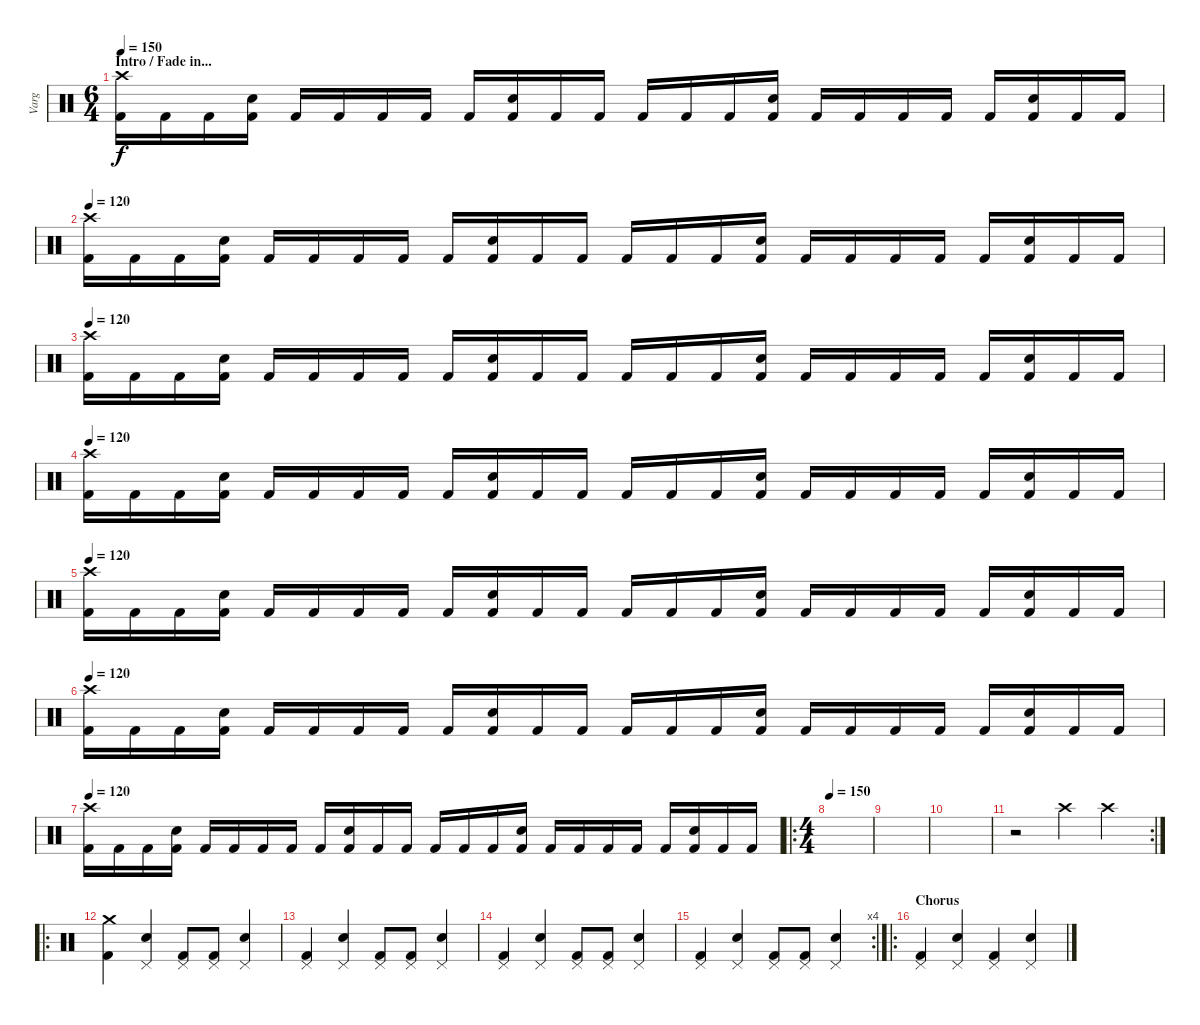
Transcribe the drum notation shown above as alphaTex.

\track ("Varg" "Varg") {instrument percussion}
\staff {score}
\articulation defaults
\ts (6 4)
\section ("" "Intro / Fade in...")
\tempo 150
\tempo 120
\tempo 150
\clef neutral
\ks c
("Crash high (hit)" "Kick (hit) 2").16{dy f} "Kick (hit) 2".16 "Kick (hit) 2".16 ("Snare (hit) 2" "Kick (hit) 2").16 "Kick (hit) 2".16 "Kick (hit) 2".16 "Kick (hit) 2".16 "Kick (hit) 2".16 "Kick (hit) 2".16 ("Snare (hit) 2" "Kick (hit) 2").16 "Kick (hit) 2".16 "Kick (hit) 2".16 "Kick (hit) 2".16 "Kick (hit) 2".16 "Kick (hit) 2".16 ("Snare (hit) 2" "Kick (hit) 2").16 "Kick (hit) 2".16 "Kick (hit) 2".16 "Kick (hit) 2".16 "Kick (hit) 2".16 "Kick (hit) 2".16 ("Snare (hit) 2" "Kick (hit) 2").16 "Kick (hit) 2".16 "Kick (hit) 2".16 |
\tempo 120
("Crash high (hit)" "Kick (hit) 2").16 "Kick (hit) 2".16 "Kick (hit) 2".16 ("Snare (hit) 2" "Kick (hit) 2").16 "Kick (hit) 2".16 "Kick (hit) 2".16 "Kick (hit) 2".16 "Kick (hit) 2".16 "Kick (hit) 2".16 ("Snare (hit) 2" "Kick (hit) 2").16 "Kick (hit) 2".16 "Kick (hit) 2".16 "Kick (hit) 2".16 "Kick (hit) 2".16 "Kick (hit) 2".16 ("Snare (hit) 2" "Kick (hit) 2").16 "Kick (hit) 2".16 "Kick (hit) 2".16 "Kick (hit) 2".16 "Kick (hit) 2".16 "Kick (hit) 2".16 ("Snare (hit) 2" "Kick (hit) 2").16 "Kick (hit) 2".16 "Kick (hit) 2".16 |
\tempo 120
("Crash high (hit)" "Kick (hit) 2").16 "Kick (hit) 2".16 "Kick (hit) 2".16 ("Snare (hit) 2" "Kick (hit) 2").16 "Kick (hit) 2".16 "Kick (hit) 2".16 "Kick (hit) 2".16 "Kick (hit) 2".16 "Kick (hit) 2".16 ("Snare (hit) 2" "Kick (hit) 2").16 "Kick (hit) 2".16 "Kick (hit) 2".16 "Kick (hit) 2".16 "Kick (hit) 2".16 "Kick (hit) 2".16 ("Snare (hit) 2" "Kick (hit) 2").16 "Kick (hit) 2".16 "Kick (hit) 2".16 "Kick (hit) 2".16 "Kick (hit) 2".16 "Kick (hit) 2".16 ("Snare (hit) 2" "Kick (hit) 2").16 "Kick (hit) 2".16 "Kick (hit) 2".16 |
\tempo 120
("Crash high (hit)" "Kick (hit) 2").16 "Kick (hit) 2".16 "Kick (hit) 2".16 ("Snare (hit) 2" "Kick (hit) 2").16 "Kick (hit) 2".16 "Kick (hit) 2".16 "Kick (hit) 2".16 "Kick (hit) 2".16 "Kick (hit) 2".16 ("Snare (hit) 2" "Kick (hit) 2").16 "Kick (hit) 2".16 "Kick (hit) 2".16 "Kick (hit) 2".16 "Kick (hit) 2".16 "Kick (hit) 2".16 ("Snare (hit) 2" "Kick (hit) 2").16 "Kick (hit) 2".16 "Kick (hit) 2".16 "Kick (hit) 2".16 "Kick (hit) 2".16 "Kick (hit) 2".16 ("Snare (hit) 2" "Kick (hit) 2").16 "Kick (hit) 2".16 "Kick (hit) 2".16 |
\tempo 120
("Crash high (hit)" "Kick (hit) 2").16 "Kick (hit) 2".16 "Kick (hit) 2".16 ("Snare (hit) 2" "Kick (hit) 2").16 "Kick (hit) 2".16 "Kick (hit) 2".16 "Kick (hit) 2".16 "Kick (hit) 2".16 "Kick (hit) 2".16 ("Snare (hit) 2" "Kick (hit) 2").16 "Kick (hit) 2".16 "Kick (hit) 2".16 "Kick (hit) 2".16 "Kick (hit) 2".16 "Kick (hit) 2".16 ("Snare (hit) 2" "Kick (hit) 2").16 "Kick (hit) 2".16 "Kick (hit) 2".16 "Kick (hit) 2".16 "Kick (hit) 2".16 "Kick (hit) 2".16 ("Snare (hit) 2" "Kick (hit) 2").16 "Kick (hit) 2".16 "Kick (hit) 2".16 |
\tempo 120
("Crash high (hit)" "Kick (hit) 2").16 "Kick (hit) 2".16 "Kick (hit) 2".16 ("Snare (hit) 2" "Kick (hit) 2").16 "Kick (hit) 2".16 "Kick (hit) 2".16 "Kick (hit) 2".16 "Kick (hit) 2".16 "Kick (hit) 2".16 ("Snare (hit) 2" "Kick (hit) 2").16 "Kick (hit) 2".16 "Kick (hit) 2".16 "Kick (hit) 2".16 "Kick (hit) 2".16 "Kick (hit) 2".16 ("Snare (hit) 2" "Kick (hit) 2").16 "Kick (hit) 2".16 "Kick (hit) 2".16 "Kick (hit) 2".16 "Kick (hit) 2".16 "Kick (hit) 2".16 ("Snare (hit) 2" "Kick (hit) 2").16 "Kick (hit) 2".16 "Kick (hit) 2".16 |
\tempo 120
("Crash high (hit)" "Kick (hit) 2").16 "Kick (hit) 2".16 "Kick (hit) 2".16 ("Snare (hit) 2" "Kick (hit) 2").16 "Kick (hit) 2".16 "Kick (hit) 2".16 "Kick (hit) 2".16 "Kick (hit) 2".16 "Kick (hit) 2".16 ("Snare (hit) 2" "Kick (hit) 2").16 "Kick (hit) 2".16 "Kick (hit) 2".16 "Kick (hit) 2".16 "Kick (hit) 2".16 "Kick (hit) 2".16 ("Snare (hit) 2" "Kick (hit) 2").16 "Kick (hit) 2".16 "Kick (hit) 2".16 "Kick (hit) 2".16 "Kick (hit) 2".16 "Kick (hit) 2".16 ("Snare (hit) 2" "Kick (hit) 2").16 "Kick (hit) 2".16 "Kick (hit) 2".16 |
\ro
\ts (4 4)
\tempo 150
|
|
|
\rc 2
r.2 "Crash high (hit)".4 "Crash high (hit)".4 |
\ro
("Crash medium (hit)" "Kick (hit) 2").4 ("Snare (hit) 2" "Pedal Hi-Hat (hit)").4 ("Kick (hit) 2" "Pedal Hi-Hat (hit)").8 ("Kick (hit) 2" "Pedal Hi-Hat (hit)").8 ("Snare (hit) 2" "Pedal Hi-Hat (hit)").4 |
("Pedal Hi-Hat (hit)" "Kick (hit) 2").4 ("Snare (hit) 2" "Pedal Hi-Hat (hit)").4 ("Kick (hit) 2" "Pedal Hi-Hat (hit)").8 ("Kick (hit) 2" "Pedal Hi-Hat (hit)").8 ("Snare (hit) 2" "Pedal Hi-Hat (hit)").4 |
("Pedal Hi-Hat (hit)" "Kick (hit) 2").4 ("Snare (hit) 2" "Pedal Hi-Hat (hit)").4 ("Kick (hit) 2" "Pedal Hi-Hat (hit)").8 ("Kick (hit) 2" "Pedal Hi-Hat (hit)").8 ("Snare (hit) 2" "Pedal Hi-Hat (hit)").4 |
\rc 4
("Pedal Hi-Hat (hit)" "Kick (hit) 2").4 ("Snare (hit) 2" "Pedal Hi-Hat (hit)").4 ("Kick (hit) 2" "Pedal Hi-Hat (hit)").8 ("Kick (hit) 2" "Pedal Hi-Hat (hit)").8 ("Snare (hit) 2" "Pedal Hi-Hat (hit)").4 |
\ro
\section ("" "Chorus")
("Kick (hit) 2" "Pedal Hi-Hat (hit)").4 ("Snare (hit) 2" "Pedal Hi-Hat (hit)").4 ("Kick (hit) 2" "Pedal Hi-Hat (hit)").4 ("Snare (hit) 2" "Pedal Hi-Hat (hit)").4
